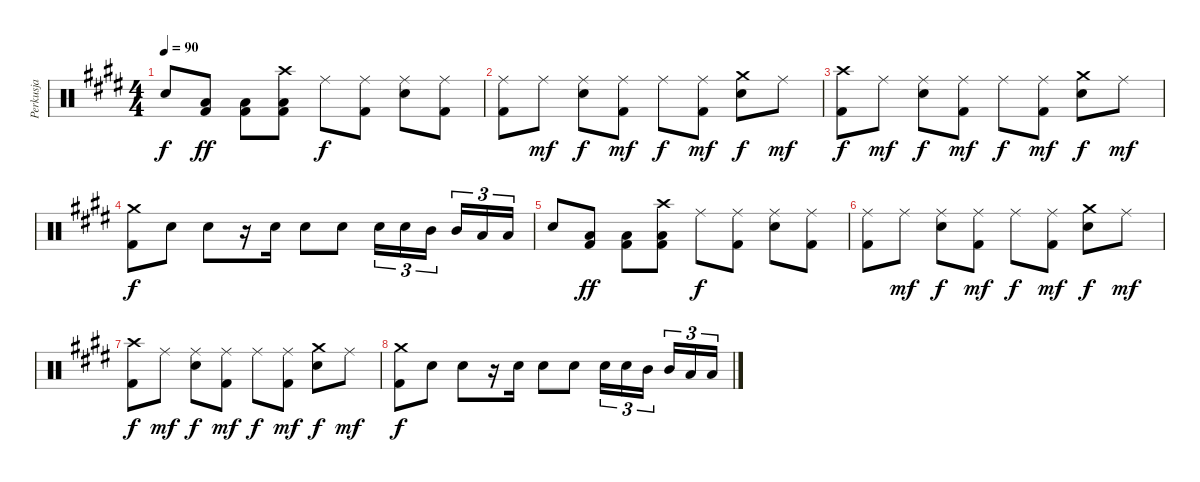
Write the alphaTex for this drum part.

\track ("Perkusja" "Perkusja") {instrument percussion}
\staff {score}
\articulation defaults
\ts (4 4)
\tempo 90
\clef neutral
\ks e "Snare (hit) 2".8{dy f}
("Low Tom (hit)" "Kick (hit) 2").8{dy ff} ("Low Tom (hit)" "Kick (hit) 2").8 ("Crash high (hit)" "Low Tom (hit)" "Kick (hit) 2").8 "Ride (middle)".8{dy f} ("Ride (middle)" "Kick (hit) 2").8 ("Ride (middle)" "Snare (hit) 2").8 ("Ride (middle)" "Kick (hit) 2").8 |
("Ride (middle)" "Kick (hit) 2").8 "Ride (middle)".8{dy mf} ("Ride (middle)" "Snare (hit) 2").8{dy f} ("Ride (middle)" "Kick (hit) 2").8{dy mf} "Ride (middle)".8{dy f} ("Ride (middle)" "Kick (hit) 2").8{dy mf} ("Crash medium (hit)" "Snare (hit) 2").8{dy f} "Ride (middle)".8{dy mf} |
("Crash high (hit)" "Kick (hit) 2").8{dy f} "Ride (middle)".8{dy mf} ("Ride (middle)" "Snare (hit) 2").8{dy f} ("Ride (middle)" "Kick (hit) 2").8{dy mf} "Ride (middle)".8{dy f} ("Ride (middle)" "Kick (hit) 2").8{dy mf} ("Crash medium (hit)" "Snare (hit) 2").8{dy f} "Ride (middle)".8{dy mf} |
("Crash medium (hit)" "Kick (hit) 2").8{dy f} "Snare (hit) 2".8 "Snare (hit) 2".8 r.16 "Snare (hit) 2".16 "Snare (hit) 2".8 "Snare (hit) 2".8 "Snare (hit) 2".16{tu (3 2)} "Snare (hit) 2".16{tu (3 2)} "Mid Tom (hit)".16{tu (3 2)} "Mid Tom (hit)".16{tu (3 2)} "Low Tom (hit)".16{tu (3 2)} "Low Tom (hit)".16{tu (3 2)} |
"Snare (hit) 2".8 ("Low Tom (hit)" "Kick (hit) 2").8{dy ff} ("Low Tom (hit)" "Kick (hit) 2").8 ("Crash high (hit)" "Low Tom (hit)" "Kick (hit) 2").8 "Ride (middle)".8{dy f} ("Ride (middle)" "Kick (hit) 2").8 ("Ride (middle)" "Snare (hit) 2").8 ("Ride (middle)" "Kick (hit) 2").8 |
("Ride (middle)" "Kick (hit) 2").8 "Ride (middle)".8{dy mf} ("Ride (middle)" "Snare (hit) 2").8{dy f} ("Ride (middle)" "Kick (hit) 2").8{dy mf} "Ride (middle)".8{dy f} ("Ride (middle)" "Kick (hit) 2").8{dy mf} ("Crash medium (hit)" "Snare (hit) 2").8{dy f} "Ride (middle)".8{dy mf} |
("Crash high (hit)" "Kick (hit) 2").8{dy f} "Ride (middle)".8{dy mf} ("Ride (middle)" "Snare (hit) 2").8{dy f} ("Ride (middle)" "Kick (hit) 2").8{dy mf} "Ride (middle)".8{dy f} ("Ride (middle)" "Kick (hit) 2").8{dy mf} ("Crash medium (hit)" "Snare (hit) 2").8{dy f} "Ride (middle)".8{dy mf} |
("Crash medium (hit)" "Kick (hit) 2").8{dy f} "Snare (hit) 2".8 "Snare (hit) 2".8 r.16 "Snare (hit) 2".16 "Snare (hit) 2".8 "Snare (hit) 2".8 "Snare (hit) 2".16{tu (3 2)} "Snare (hit) 2".16{tu (3 2)} "Mid Tom (hit)".16{tu (3 2)} "Mid Tom (hit)".16{tu (3 2)} "Low Tom (hit)".16{tu (3 2)} "Low Tom (hit)".16{tu (3 2)}
